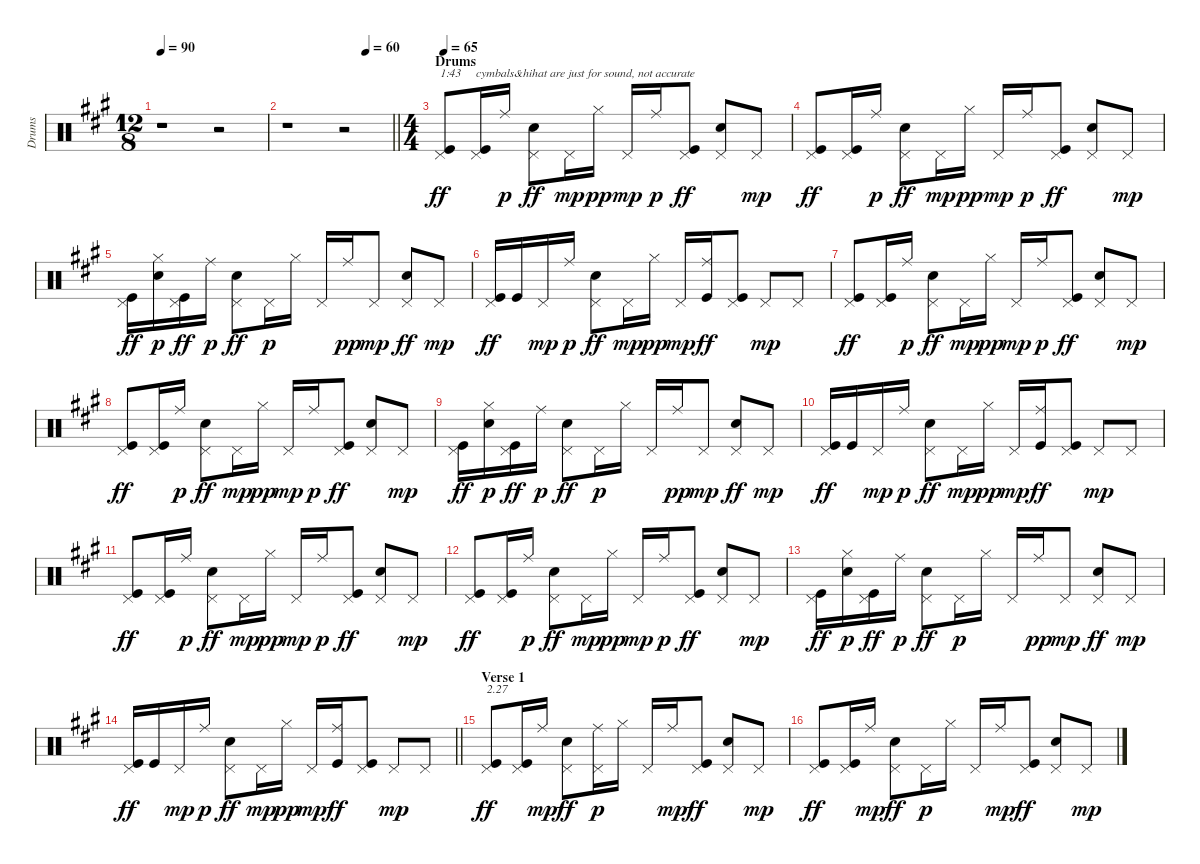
\track ("Drums" "Drums") {instrument percussion}
\staff {score}
\articulation defaults
\ts (12 8)
\tempo 90
\clef neutral
\ks f#minor
r.1{dy ff} r.2 |
\tempo (60 0.75)
\barLineRight lightlight
r.1 r.2 |
\ts (4 4)
\section ("" "Drums")
\tempo 65
("Pedal Hi-Hat (hit)" "Kick (hit)").8{txt "1:43"} ("Pedal Hi-Hat (hit)" "Kick (hit)").16{txt "cymbals&hihat are just for sound, not accurate"} "Ride (middle)".16{dy p} ("Pedal Hi-Hat (hit)" "Electric Snare (hit)").8{dy ff} "Pedal Hi-Hat (hit)".16{dy mp} "Hi-Hat (closed)".16{dy pp} "Pedal Hi-Hat (hit)".16{dy mp} "Ride (middle)".16{dy p} ("Pedal Hi-Hat (hit)" "Kick (hit)").8{dy ff} ("Pedal Hi-Hat (hit)" "Electric Snare (hit)").8 "Pedal Hi-Hat (hit)".8{dy mp} |
("Pedal Hi-Hat (hit)" "Kick (hit)").8{dy ff} ("Pedal Hi-Hat (hit)" "Kick (hit)").16 "Ride (middle)".16{dy p} ("Pedal Hi-Hat (hit)" "Electric Snare (hit)").8{dy ff} "Pedal Hi-Hat (hit)".16{dy mp} "Hi-Hat (closed)".16{dy pp} "Pedal Hi-Hat (hit)".16{dy mp} "Ride (middle)".16{dy p} ("Pedal Hi-Hat (hit)" "Kick (hit)").8{dy ff} ("Pedal Hi-Hat (hit)" "Electric Snare (hit)").8 "Pedal Hi-Hat (hit)".8{dy mp} |
("Pedal Hi-Hat (hit)" "Kick (hit)").16{dy ff} ("Hi-Hat (closed)" "Electric Snare (hit)").16{dy p} ("Pedal Hi-Hat (hit)" "Kick (hit)").16{dy ff} "Ride (middle)".16{dy p} ("Pedal Hi-Hat (hit)" "Electric Snare (hit)").8{dy ff} "Pedal Hi-Hat (hit)".16{dy p} "Hi-Hat (closed)".16 "Pedal Hi-Hat (hit)".16 "Ride (middle)".16{dy pp} "Pedal Hi-Hat (hit)".8{dy mp} ("Pedal Hi-Hat (hit)" "Electric Snare (hit)").8{dy ff} "Pedal Hi-Hat (hit)".8{dy mp} |
("Pedal Hi-Hat (hit)" "Kick (hit)").16{dy ff} "Kick (hit)".16 "Pedal Hi-Hat (hit)".16{dy mp} "Ride (middle)".16{dy p} ("Pedal Hi-Hat (hit)" "Electric Snare (hit)").8{dy ff} "Pedal Hi-Hat (hit)".16{dy mp} "Hi-Hat (closed)".16{dy pp} "Pedal Hi-Hat (hit)".16{dy mp} ("Ride (middle)" "Kick (hit)").16{dy ff} ("Pedal Hi-Hat (hit)" "Kick (hit)").8 "Pedal Hi-Hat (hit)".8{dy mp} "Pedal Hi-Hat (hit)".8 |
("Pedal Hi-Hat (hit)" "Kick (hit)").8{dy ff} ("Pedal Hi-Hat (hit)" "Kick (hit)").16 "Ride (middle)".16{dy p} ("Pedal Hi-Hat (hit)" "Electric Snare (hit)").8{dy ff} "Pedal Hi-Hat (hit)".16{dy mp} "Hi-Hat (closed)".16{dy pp} "Pedal Hi-Hat (hit)".16{dy mp} "Ride (middle)".16{dy p} ("Pedal Hi-Hat (hit)" "Kick (hit)").8{dy ff} ("Pedal Hi-Hat (hit)" "Electric Snare (hit)").8 "Pedal Hi-Hat (hit)".8{dy mp} |
("Pedal Hi-Hat (hit)" "Kick (hit)").8{dy ff} ("Pedal Hi-Hat (hit)" "Kick (hit)").16 "Ride (middle)".16{dy p} ("Pedal Hi-Hat (hit)" "Electric Snare (hit)").8{dy ff} "Pedal Hi-Hat (hit)".16{dy mp} "Hi-Hat (closed)".16{dy pp} "Pedal Hi-Hat (hit)".16{dy mp} "Ride (middle)".16{dy p} ("Pedal Hi-Hat (hit)" "Kick (hit)").8{dy ff} ("Pedal Hi-Hat (hit)" "Electric Snare (hit)").8 "Pedal Hi-Hat (hit)".8{dy mp} |
("Pedal Hi-Hat (hit)" "Kick (hit)").16{dy ff} ("Hi-Hat (closed)" "Electric Snare (hit)").16{dy p} ("Pedal Hi-Hat (hit)" "Kick (hit)").16{dy ff} "Ride (middle)".16{dy p} ("Pedal Hi-Hat (hit)" "Electric Snare (hit)").8{dy ff} "Pedal Hi-Hat (hit)".16{dy p} "Hi-Hat (closed)".16 "Pedal Hi-Hat (hit)".16 "Ride (middle)".16{dy pp} "Pedal Hi-Hat (hit)".8{dy mp} ("Pedal Hi-Hat (hit)" "Electric Snare (hit)").8{dy ff} "Pedal Hi-Hat (hit)".8{dy mp} |
("Pedal Hi-Hat (hit)" "Kick (hit)").16{dy ff} "Kick (hit)".16 "Pedal Hi-Hat (hit)".16{dy mp} "Ride (middle)".16{dy p} ("Pedal Hi-Hat (hit)" "Electric Snare (hit)").8{dy ff} "Pedal Hi-Hat (hit)".16{dy mp} "Hi-Hat (closed)".16{dy pp} "Pedal Hi-Hat (hit)".16{dy mp} ("Ride (middle)" "Kick (hit)").16{dy ff} ("Pedal Hi-Hat (hit)" "Kick (hit)").8 "Pedal Hi-Hat (hit)".8{dy mp} "Pedal Hi-Hat (hit)".8 |
("Pedal Hi-Hat (hit)" "Kick (hit)").8{dy ff} ("Pedal Hi-Hat (hit)" "Kick (hit)").16 "Ride (middle)".16{dy p} ("Pedal Hi-Hat (hit)" "Electric Snare (hit)").8{dy ff} "Pedal Hi-Hat (hit)".16{dy mp} "Hi-Hat (closed)".16{dy pp} "Pedal Hi-Hat (hit)".16{dy mp} "Ride (middle)".16{dy p} ("Pedal Hi-Hat (hit)" "Kick (hit)").8{dy ff} ("Pedal Hi-Hat (hit)" "Electric Snare (hit)").8 "Pedal Hi-Hat (hit)".8{dy mp} |
("Pedal Hi-Hat (hit)" "Kick (hit)").8{dy ff} ("Pedal Hi-Hat (hit)" "Kick (hit)").16 "Ride (middle)".16{dy p} ("Pedal Hi-Hat (hit)" "Electric Snare (hit)").8{dy ff} "Pedal Hi-Hat (hit)".16{dy mp} "Hi-Hat (closed)".16{dy pp} "Pedal Hi-Hat (hit)".16{dy mp} "Ride (middle)".16{dy p} ("Pedal Hi-Hat (hit)" "Kick (hit)").8{dy ff} ("Pedal Hi-Hat (hit)" "Electric Snare (hit)").8 "Pedal Hi-Hat (hit)".8{dy mp} |
("Pedal Hi-Hat (hit)" "Kick (hit)").16{dy ff} ("Hi-Hat (closed)" "Electric Snare (hit)").16{dy p} ("Pedal Hi-Hat (hit)" "Kick (hit)").16{dy ff} "Ride (middle)".16{dy p} ("Pedal Hi-Hat (hit)" "Electric Snare (hit)").8{dy ff} "Pedal Hi-Hat (hit)".16{dy p} "Hi-Hat (closed)".16 "Pedal Hi-Hat (hit)".16 "Ride (middle)".16{dy pp} "Pedal Hi-Hat (hit)".8{dy mp} ("Pedal Hi-Hat (hit)" "Electric Snare (hit)").8{dy ff} "Pedal Hi-Hat (hit)".8{dy mp} |
\barLineRight lightlight
("Pedal Hi-Hat (hit)" "Kick (hit)").16{dy ff} "Kick (hit)".16 "Pedal Hi-Hat (hit)".16{dy mp} "Ride (middle)".16{dy p} ("Pedal Hi-Hat (hit)" "Electric Snare (hit)").8{dy ff} "Pedal Hi-Hat (hit)".16{dy mp} "Hi-Hat (closed)".16{dy pp} "Pedal Hi-Hat (hit)".16{dy mp} ("Ride (middle)" "Kick (hit)").16{dy ff} ("Pedal Hi-Hat (hit)" "Kick (hit)").8 "Pedal Hi-Hat (hit)".8{dy mp} "Pedal Hi-Hat (hit)".8 |
\section ("" "Verse 1")
("Pedal Hi-Hat (hit)" "Kick (hit)").8{txt "2.27" dy ff} ("Pedal Hi-Hat (hit)" "Kick (hit)").16 "Ride (middle)".16{dy mp} ("Pedal Hi-Hat (hit)" "Electric Snare (hit)").8{dy ff} ("Ride (middle)" "Pedal Hi-Hat (hit)").16{dy p} "Hi-Hat (closed)".16 "Pedal Hi-Hat (hit)".16 "Ride (middle)".16{dy mp} ("Pedal Hi-Hat (hit)" "Kick (hit)").8{dy ff} ("Pedal Hi-Hat (hit)" "Electric Snare (hit)").8 "Pedal Hi-Hat (hit)".8{dy mp} |
("Pedal Hi-Hat (hit)" "Kick (hit)").8{dy ff} ("Pedal Hi-Hat (hit)" "Kick (hit)").16 "Ride (middle)".16{dy mp} ("Pedal Hi-Hat (hit)" "Electric Snare (hit)").8{dy ff} "Pedal Hi-Hat (hit)".16{dy p} "Hi-Hat (closed)".16 "Pedal Hi-Hat (hit)".16 "Ride (middle)".16{dy mp} ("Pedal Hi-Hat (hit)" "Kick (hit)").8{dy ff} ("Pedal Hi-Hat (hit)" "Electric Snare (hit)").8 "Pedal Hi-Hat (hit)".8{dy mp}
